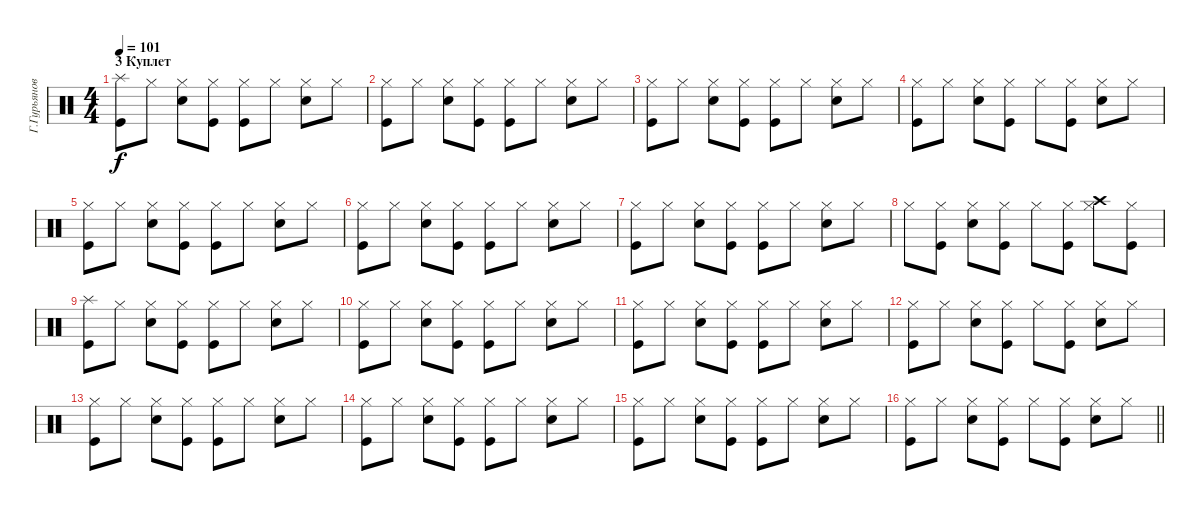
\track ("Г.Гурьянов" "Г.Гурьянов") {instrument percussion}
\staff {score}
\articulation defaults
\ts (4 4)
\section ("" "3 Куплет")
\tempo 101
\clef neutral
\ks c
("Splash (hit)" "Kick (hit)").8{dy f} "Hi-Hat (closed)".8 ("Hi-Hat (closed)" "Snare (hit) 2").8 ("Hi-Hat (closed)" "Kick (hit)").8 ("Hi-Hat (closed)" "Kick (hit)").8 "Hi-Hat (closed)".8 ("Hi-Hat (closed)" "Snare (hit) 2").8 "Hi-Hat (closed)".8 |
("Hi-Hat (closed)" "Kick (hit)").8 "Hi-Hat (closed)".8 ("Hi-Hat (closed)" "Snare (hit) 2").8 ("Hi-Hat (closed)" "Kick (hit)").8 ("Hi-Hat (closed)" "Kick (hit)").8 "Hi-Hat (closed)".8 ("Hi-Hat (closed)" "Snare (hit) 2").8 "Hi-Hat (closed)".8 |
("Hi-Hat (closed)" "Kick (hit)").8 "Hi-Hat (closed)".8 ("Hi-Hat (closed)" "Snare (hit) 2").8 ("Hi-Hat (closed)" "Kick (hit)").8 ("Hi-Hat (closed)" "Kick (hit)").8 "Hi-Hat (closed)".8 ("Hi-Hat (closed)" "Snare (hit) 2").8 "Hi-Hat (closed)".8 |
("Hi-Hat (closed)" "Kick (hit)").8 "Hi-Hat (closed)".8 ("Hi-Hat (closed)" "Snare (hit) 2").8 ("Hi-Hat (closed)" "Kick (hit)").8 "Hi-Hat (closed)".8 ("Hi-Hat (closed)" "Kick (hit)").8 ("Hi-Hat (closed)" "Snare (hit) 2").8 "Hi-Hat (closed)".8 |
("Hi-Hat (closed)" "Kick (hit)").8 "Hi-Hat (closed)".8 ("Hi-Hat (closed)" "Snare (hit) 2").8 ("Hi-Hat (closed)" "Kick (hit)").8 ("Hi-Hat (closed)" "Kick (hit)").8 "Hi-Hat (closed)".8 ("Hi-Hat (closed)" "Snare (hit) 2").8 "Hi-Hat (closed)".8 |
("Hi-Hat (closed)" "Kick (hit)").8 "Hi-Hat (closed)".8 ("Hi-Hat (closed)" "Snare (hit) 2").8 ("Hi-Hat (closed)" "Kick (hit)").8 ("Hi-Hat (closed)" "Kick (hit)").8 "Hi-Hat (closed)".8 ("Hi-Hat (closed)" "Snare (hit) 2").8 "Hi-Hat (closed)".8 |
("Hi-Hat (closed)" "Kick (hit)").8 "Hi-Hat (closed)".8 ("Hi-Hat (closed)" "Snare (hit) 2").8 ("Hi-Hat (closed)" "Kick (hit)").8 ("Hi-Hat (closed)" "Kick (hit)").8 "Hi-Hat (closed)".8 ("Hi-Hat (closed)" "Snare (hit) 2").8 "Hi-Hat (closed)".8 |
"Hi-Hat (closed)".8 ("Hi-Hat (closed)" "Kick (hit)").8 ("Hi-Hat (closed)" "Snare (hit) 2").8 ("Hi-Hat (closed)" "Kick (hit)").8 "Hi-Hat (closed)".8 ("Hi-Hat (closed)" "Kick (hit)").8 ("Hi-Hat (closed)" "Crash high (hit)").8 ("Hi-Hat (closed)" "Kick (hit)").8 |
("Splash (hit)" "Kick (hit)").8 "Hi-Hat (closed)".8 ("Hi-Hat (closed)" "Snare (hit) 2").8 ("Hi-Hat (closed)" "Kick (hit)").8 ("Hi-Hat (closed)" "Kick (hit)").8 "Hi-Hat (closed)".8 ("Hi-Hat (closed)" "Snare (hit) 2").8 "Hi-Hat (closed)".8 |
("Hi-Hat (closed)" "Kick (hit)").8 "Hi-Hat (closed)".8 ("Hi-Hat (closed)" "Snare (hit) 2").8 ("Hi-Hat (closed)" "Kick (hit)").8 ("Hi-Hat (closed)" "Kick (hit)").8 "Hi-Hat (closed)".8 ("Hi-Hat (closed)" "Snare (hit) 2").8 "Hi-Hat (closed)".8 |
("Hi-Hat (closed)" "Kick (hit)").8 "Hi-Hat (closed)".8 ("Hi-Hat (closed)" "Snare (hit) 2").8 ("Hi-Hat (closed)" "Kick (hit)").8 ("Hi-Hat (closed)" "Kick (hit)").8 "Hi-Hat (closed)".8 ("Hi-Hat (closed)" "Snare (hit) 2").8 "Hi-Hat (closed)".8 |
("Hi-Hat (closed)" "Kick (hit)").8 "Hi-Hat (closed)".8 ("Hi-Hat (closed)" "Snare (hit) 2").8 ("Hi-Hat (closed)" "Kick (hit)").8 "Hi-Hat (closed)".8 ("Hi-Hat (closed)" "Kick (hit)").8 ("Hi-Hat (closed)" "Snare (hit) 2").8 "Hi-Hat (closed)".8 |
("Hi-Hat (closed)" "Kick (hit)").8 "Hi-Hat (closed)".8 ("Hi-Hat (closed)" "Snare (hit) 2").8 ("Hi-Hat (closed)" "Kick (hit)").8 ("Hi-Hat (closed)" "Kick (hit)").8 "Hi-Hat (closed)".8 ("Hi-Hat (closed)" "Snare (hit) 2").8 "Hi-Hat (closed)".8 |
("Hi-Hat (closed)" "Kick (hit)").8 "Hi-Hat (closed)".8 ("Hi-Hat (closed)" "Snare (hit) 2").8 ("Hi-Hat (closed)" "Kick (hit)").8 ("Hi-Hat (closed)" "Kick (hit)").8 "Hi-Hat (closed)".8 ("Hi-Hat (closed)" "Snare (hit) 2").8 "Hi-Hat (closed)".8 |
("Hi-Hat (closed)" "Kick (hit)").8 "Hi-Hat (closed)".8 ("Hi-Hat (closed)" "Snare (hit) 2").8 ("Hi-Hat (closed)" "Kick (hit)").8 ("Hi-Hat (closed)" "Kick (hit)").8 "Hi-Hat (closed)".8 ("Hi-Hat (closed)" "Snare (hit) 2").8 "Hi-Hat (closed)".8 |
\barLineRight lightlight
("Hi-Hat (closed)" "Kick (hit)").8 "Hi-Hat (closed)".8 ("Hi-Hat (closed)" "Snare (hit) 2").8 ("Hi-Hat (closed)" "Kick (hit)").8 "Hi-Hat (closed)".8 ("Hi-Hat (closed)" "Kick (hit)").8 ("Hi-Hat (closed)" "Snare (hit) 2").8 "Hi-Hat (closed)".8
